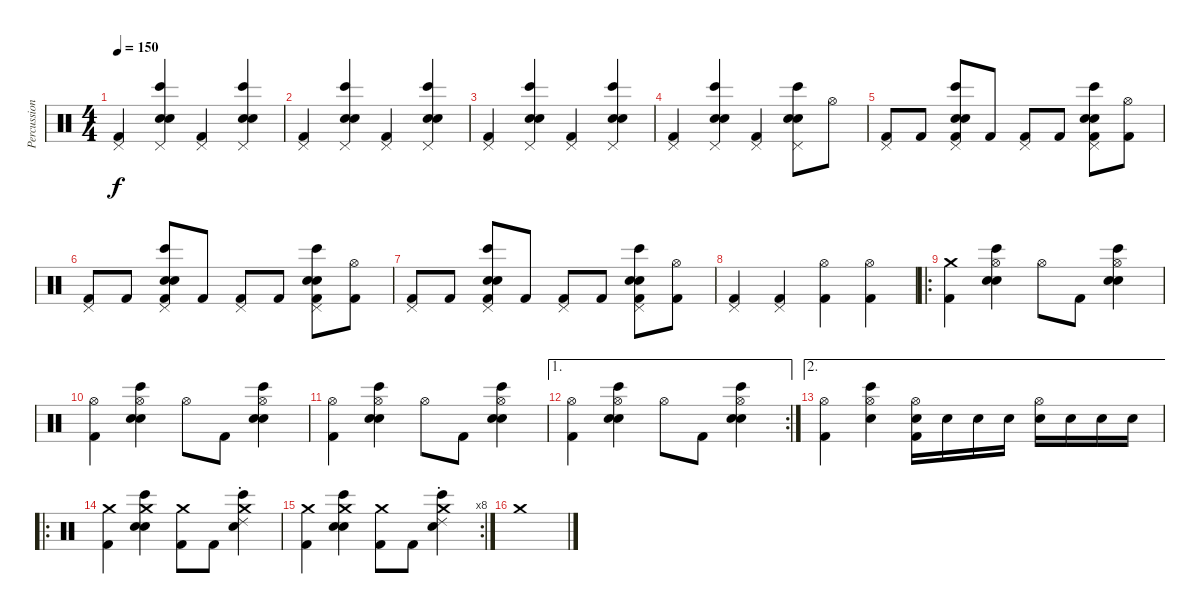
\track ("Percussion" "Percussion") {instrument percussion}
\staff {score}
\articulation defaults
\ts (4 4)
\tempo 150
\clef neutral
\ks c
("Pedal Hi-Hat (hit)" "Kick (hit) 2").4{dy f} ("Hand Clap (hit)" "Bongo High (hit)" "Pedal Hi-Hat (hit)" "Snare (hit) 2").4 ("Pedal Hi-Hat (hit)" "Kick (hit) 2").4 ("Hand Clap (hit)" "Bongo High (hit)" "Pedal Hi-Hat (hit)" "Snare (hit) 2").4 |
("Pedal Hi-Hat (hit)" "Kick (hit) 2").4 ("Hand Clap (hit)" "Bongo High (hit)" "Pedal Hi-Hat (hit)" "Snare (hit) 2").4 ("Pedal Hi-Hat (hit)" "Kick (hit) 2").4 ("Hand Clap (hit)" "Bongo High (hit)" "Pedal Hi-Hat (hit)" "Snare (hit) 2").4 |
("Pedal Hi-Hat (hit)" "Kick (hit) 2").4 ("Hand Clap (hit)" "Bongo High (hit)" "Pedal Hi-Hat (hit)" "Snare (hit) 2").4 ("Pedal Hi-Hat (hit)" "Kick (hit) 2").4 ("Hand Clap (hit)" "Bongo High (hit)" "Pedal Hi-Hat (hit)" "Snare (hit) 2").4 |
("Pedal Hi-Hat (hit)" "Kick (hit) 2").4 ("Hand Clap (hit)" "Bongo High (hit)" "Pedal Hi-Hat (hit)" "Snare (hit) 2").4 ("Pedal Hi-Hat (hit)" "Kick (hit) 2").4 ("Hand Clap (hit)" "Bongo High (hit)" "Pedal Hi-Hat (hit)" "Snare (hit) 2").8 "Hi-Hat (open)".8 |
("Pedal Hi-Hat (hit)" "Kick (hit) 2").8 "Kick (hit) 2".8 ("Hand Clap (hit)" "Bongo High (hit)" "Pedal Hi-Hat (hit)" "Snare (hit) 2" "Kick (hit) 2").8 "Kick (hit) 2".8 ("Pedal Hi-Hat (hit)" "Kick (hit) 2").8 "Kick (hit) 2".8 ("Hand Clap (hit)" "Bongo High (hit)" "Pedal Hi-Hat (hit)" "Snare (hit) 2" "Kick (hit) 2").8 ("Hi-Hat (open)" "Kick (hit) 2").8 |
("Pedal Hi-Hat (hit)" "Kick (hit) 2").8 "Kick (hit) 2".8 ("Hand Clap (hit)" "Bongo High (hit)" "Pedal Hi-Hat (hit)" "Snare (hit) 2" "Kick (hit) 2").8 "Kick (hit) 2".8 ("Pedal Hi-Hat (hit)" "Kick (hit) 2").8 "Kick (hit) 2".8 ("Hand Clap (hit)" "Bongo High (hit)" "Pedal Hi-Hat (hit)" "Snare (hit) 2" "Kick (hit) 2").8 ("Hi-Hat (open)" "Kick (hit) 2").8 |
("Pedal Hi-Hat (hit)" "Kick (hit) 2").8 "Kick (hit) 2".8 ("Hand Clap (hit)" "Bongo High (hit)" "Pedal Hi-Hat (hit)" "Snare (hit) 2" "Kick (hit) 2").8 "Kick (hit) 2".8 ("Pedal Hi-Hat (hit)" "Kick (hit) 2").8 "Kick (hit) 2".8 ("Hand Clap (hit)" "Bongo High (hit)" "Pedal Hi-Hat (hit)" "Snare (hit) 2" "Kick (hit) 2").8 ("Hi-Hat (open)" "Kick (hit) 2").8 |
("Pedal Hi-Hat (hit)" "Kick (hit) 2").4 ("Pedal Hi-Hat (hit)" "Kick (hit) 2").4 ("Hi-Hat (open)" "Kick (hit) 2").4 ("Hi-Hat (open)" "Kick (hit) 2").4 |
\ro
("Crash medium (hit)" "Kick (hit) 2").4 ("Hi-Hat (open)" "Hand Clap (hit)" "Bongo High (hit)" "Snare (hit) 2").4 "Hi-Hat (open)".8 "Kick (hit) 2".8 ("Hi-Hat (open)" "Hand Clap (hit)" "Bongo High (hit)" "Snare (hit) 2").4 |
("Hi-Hat (open)" "Kick (hit) 2").4 ("Hi-Hat (open)" "Hand Clap (hit)" "Bongo High (hit)" "Snare (hit) 2").4 "Hi-Hat (open)".8 "Kick (hit) 2".8 ("Hi-Hat (open)" "Hand Clap (hit)" "Bongo High (hit)" "Snare (hit) 2").4 |
("Hi-Hat (open)" "Kick (hit) 2").4 ("Hi-Hat (open)" "Hand Clap (hit)" "Bongo High (hit)" "Snare (hit) 2").4 "Hi-Hat (open)".8 "Kick (hit) 2".8 ("Hi-Hat (open)" "Hand Clap (hit)" "Bongo High (hit)" "Snare (hit) 2").4 |
\ae 1
\rc 2
("Hi-Hat (open)" "Kick (hit) 2").4 ("Hi-Hat (open)" "Hand Clap (hit)" "Bongo High (hit)" "Snare (hit) 2").4 "Hi-Hat (open)".8 "Kick (hit) 2".8 ("Hi-Hat (open)" "Hand Clap (hit)" "Bongo High (hit)" "Snare (hit) 2").4 |
\ae 2
("Hi-Hat (open)" "Kick (hit) 2").4 ("Hi-Hat (open)" "Bongo High (hit)" "Snare (hit) 2").4 ("Hi-Hat (open)" "Snare (hit) 2" "Kick (hit) 2").16 "Snare (hit) 2".16 "Snare (hit) 2".16 "Snare (hit) 2".16 ("Hi-Hat (open)" "Snare (hit) 2").16 "Snare (hit) 2".16 "Snare (hit) 2".16 "Snare (hit) 2".16 |
\ro
("Crash medium (hit)" "Kick (hit) 2").4 ("Crash medium (hit)" "Bongo High (hit)" "Hand Clap (hit)" "Snare (hit) 2").4 ("Crash medium (hit)" "Kick (hit) 2").8 "Kick (hit) 2".8 ("Crash medium (hit)" "Bongo High (hit)" "Ride (choke) 2" "Snare (hit) 2").4 |
\rc 8
("Crash medium (hit)" "Kick (hit) 2").4 ("Crash medium (hit)" "Bongo High (hit)" "Hand Clap (hit)" "Snare (hit) 2").4 ("Crash medium (hit)" "Kick (hit) 2").8 "Kick (hit) 2".8 ("Crash medium (hit)" "Bongo High (hit)" "Ride (choke) 2" "Snare (hit) 2").4 |
"Crash medium (hit)".1
